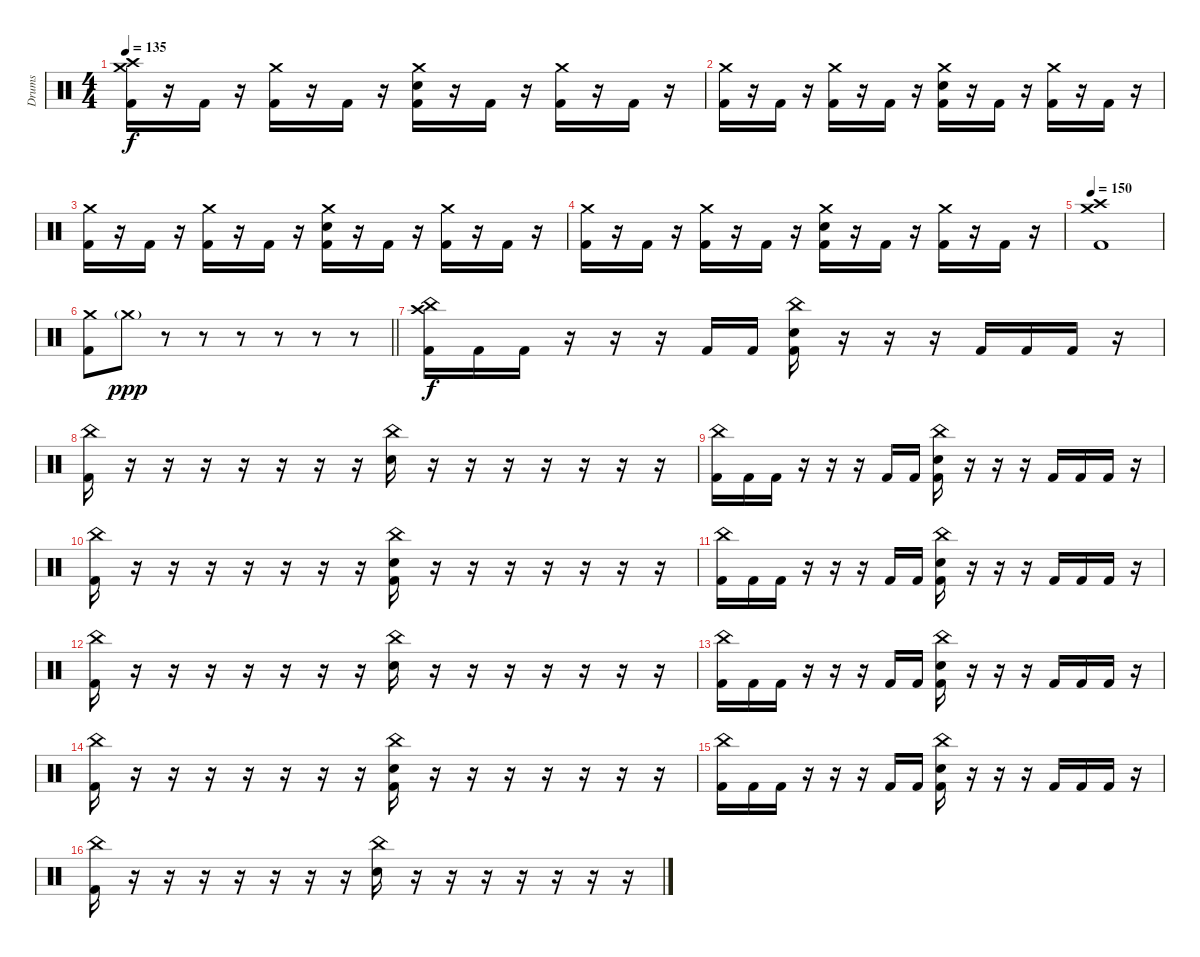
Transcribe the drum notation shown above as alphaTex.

\track ("Drums" "Drums") {instrument percussion}
\staff {score}
\articulation defaults
\ts (4 4)
\tempo 135
\clef neutral
\ks c
("Crash medium (hit)" "Crash high (hit)" "Kick (hit) 2").16{dy f} r.16 "Kick (hit) 2".16 r.16 ("Crash medium (hit)" "Kick (hit) 2").16 r.16 "Kick (hit) 2".16 r.16 ("Crash medium (hit)" "Electric Snare (hit)" "Kick (hit) 2").16 r.16 "Kick (hit) 2".16 r.16 ("Crash medium (hit)" "Kick (hit) 2").16 r.16 "Kick (hit) 2".16 r.16 |
("Crash medium (hit)" "Kick (hit) 2").16 r.16 "Kick (hit) 2".16 r.16 ("Crash medium (hit)" "Kick (hit) 2").16 r.16 "Kick (hit) 2".16 r.16 ("Crash medium (hit)" "Electric Snare (hit)" "Kick (hit) 2").16 r.16 "Kick (hit) 2".16 r.16 ("Crash medium (hit)" "Kick (hit) 2").16 r.16 "Kick (hit) 2".16 r.16 |
("Crash medium (hit)" "Kick (hit) 2").16 r.16 "Kick (hit) 2".16 r.16 ("Crash medium (hit)" "Kick (hit) 2").16 r.16 "Kick (hit) 2".16 r.16 ("Crash medium (hit)" "Electric Snare (hit)" "Kick (hit) 2").16 r.16 "Kick (hit) 2".16 r.16 ("Crash medium (hit)" "Kick (hit) 2").16 r.16 "Kick (hit) 2".16 r.16 |
("Crash medium (hit)" "Kick (hit) 2").16 r.16 "Kick (hit) 2".16 r.16 ("Crash medium (hit)" "Kick (hit) 2").16 r.16 "Kick (hit) 2".16 r.16 ("Crash medium (hit)" "Electric Snare (hit)" "Kick (hit) 2").16 r.16 "Kick (hit) 2".16 r.16 ("Crash medium (hit)" "Kick (hit) 2").16 r.16 "Kick (hit) 2".16 r.16 |
\tempo 150
("Crash medium (hit)" "Crash high (hit)" "Kick (hit) 2").1 |
\barLineRight lightlight
("Crash medium (hit)" "Kick (hit) 2").8 "Crash medium (hit)"{g}.8{dy ppp volume 0} r.8 r.8 r.8 r.8 r.8 r.8 |
("China (hit)" "Crash high (hit)" "Kick (hit) 2").16{dy f volume 16} "Kick (hit) 2".16 "Kick (hit) 2".16 r.16 r.16 r.16 "Kick (hit) 2".16 "Kick (hit) 2".16 ("China (hit)" "Electric Snare (hit)" "Kick (hit) 2").16 r.16 r.16 r.16 "Kick (hit) 2".16 "Kick (hit) 2".16 "Kick (hit) 2".16 r.16 |
("China (hit)" "Kick (hit) 2").16 r.16 r.16 r.16 r.16 r.16 r.16 r.16 ("China (hit)" "Electric Snare (hit)").16 r.16 r.16 r.16 r.16 r.16 r.16 r.16 |
("China (hit)" "Kick (hit) 2").16 "Kick (hit) 2".16 "Kick (hit) 2".16 r.16 r.16 r.16 "Kick (hit) 2".16 "Kick (hit) 2".16 ("China (hit)" "Electric Snare (hit)" "Kick (hit) 2").16 r.16 r.16 r.16 "Kick (hit) 2".16 "Kick (hit) 2".16 "Kick (hit) 2".16 r.16 |
("China (hit)" "Kick (hit) 2").16 r.16 r.16 r.16 r.16 r.16 r.16 r.16 ("China (hit)" "Electric Snare (hit)" "Kick (hit) 2").16 r.16 r.16 r.16 r.16 r.16 r.16 r.16 |
("China (hit)" "Kick (hit) 2").16 "Kick (hit) 2".16 "Kick (hit) 2".16 r.16 r.16 r.16 "Kick (hit) 2".16 "Kick (hit) 2".16 ("China (hit)" "Electric Snare (hit)" "Kick (hit) 2").16 r.16 r.16 r.16 "Kick (hit) 2".16 "Kick (hit) 2".16 "Kick (hit) 2".16 r.16 |
("China (hit)" "Kick (hit) 2").16 r.16 r.16 r.16 r.16 r.16 r.16 r.16 ("China (hit)" "Electric Snare (hit)").16 r.16 r.16 r.16 r.16 r.16 r.16 r.16 |
("China (hit)" "Kick (hit) 2").16 "Kick (hit) 2".16 "Kick (hit) 2".16 r.16 r.16 r.16 "Kick (hit) 2".16 "Kick (hit) 2".16 ("China (hit)" "Electric Snare (hit)" "Kick (hit) 2").16 r.16 r.16 r.16 "Kick (hit) 2".16 "Kick (hit) 2".16 "Kick (hit) 2".16 r.16 |
("China (hit)" "Kick (hit) 2").16 r.16 r.16 r.16 r.16 r.16 r.16 r.16 ("China (hit)" "Electric Snare (hit)" "Kick (hit) 2").16 r.16 r.16 r.16 r.16 r.16 r.16 r.16 |
("China (hit)" "Kick (hit) 2").16 "Kick (hit) 2".16 "Kick (hit) 2".16 r.16 r.16 r.16 "Kick (hit) 2".16 "Kick (hit) 2".16 ("China (hit)" "Electric Snare (hit)" "Kick (hit) 2").16 r.16 r.16 r.16 "Kick (hit) 2".16 "Kick (hit) 2".16 "Kick (hit) 2".16 r.16 |
("China (hit)" "Kick (hit) 2").16 r.16 r.16 r.16 r.16 r.16 r.16 r.16 ("China (hit)" "Electric Snare (hit)").16 r.16 r.16 r.16 r.16 r.16 r.16 r.16
